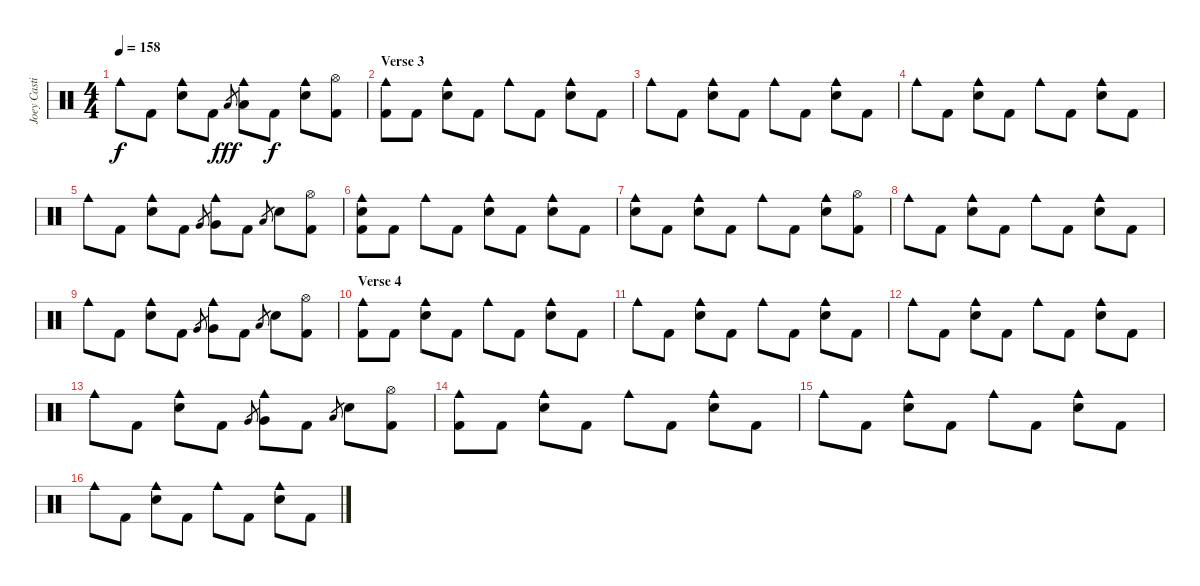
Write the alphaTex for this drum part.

\track ("Joey Castillo" "Joey Casti") {instrument percussion}
\staff {score}
\articulation defaults
\ts (4 4)
\tempo 158
\clef neutral
\ks c "Cowbell medium (hit)".8{dy f} "Kick (hit) 2".8
("Cowbell medium (hit)" "Electric Snare (hit)").8 "Kick (hit) 2".8 "Low Tom (hit)".8{gr dy fff} ("Cowbell medium (hit)" "Low Tom (hit)").8 "Kick (hit) 2".8{dy f} ("Cowbell medium (hit)" "Electric Snare (hit)").8 ("Hi-Hat (open)" "Kick (hit) 2").8 |
\section ("" "Verse 3")
("Cowbell medium (hit)" "Kick (hit) 2").8 "Kick (hit) 2".8 ("Cowbell medium (hit)" "Electric Snare (hit)").8 "Kick (hit) 2".8 "Cowbell medium (hit)".8 "Kick (hit) 2".8 ("Cowbell medium (hit)" "Electric Snare (hit)").8 "Kick (hit) 2".8 |
"Cowbell medium (hit)".8 "Kick (hit) 2".8 ("Cowbell medium (hit)" "Electric Snare (hit)").8 "Kick (hit) 2".8 "Cowbell medium (hit)".8 "Kick (hit) 2".8 ("Cowbell medium (hit)" "Electric Snare (hit)").8 "Kick (hit) 2".8 |
"Cowbell medium (hit)".8 "Kick (hit) 2".8 ("Cowbell medium (hit)" "Electric Snare (hit)").8 "Kick (hit) 2".8 "Cowbell medium (hit)".8 "Kick (hit) 2".8 ("Cowbell medium (hit)" "Electric Snare (hit)").8 "Kick (hit) 2".8 |
"Cowbell medium (hit)".8 "Kick (hit) 2".8 ("Cowbell medium (hit)" "Electric Snare (hit)").8 "Kick (hit) 2".8 "Very Low Tom (hit)".8{gr} ("Cowbell medium (hit)" "Very Low Tom (hit)").8 "Kick (hit) 2".8 "Low Floor Tom (hit)".8{gr} "Electric Snare (hit)".8 ("Hi-Hat (open)" "Kick (hit) 2").8 |
("Cowbell medium (hit)" "Electric Snare (hit)" "Kick (hit) 2").8 "Kick (hit) 2".8 "Cowbell medium (hit)".8 "Kick (hit) 2".8 ("Cowbell medium (hit)" "Electric Snare (hit)").8 "Kick (hit) 2".8 ("Cowbell medium (hit)" "Electric Snare (hit)").8 "Kick (hit) 2".8 |
("Cowbell medium (hit)" "Electric Snare (hit)").8 "Kick (hit) 2".8 ("Cowbell medium (hit)" "Electric Snare (hit)").8 "Kick (hit) 2".8 "Cowbell medium (hit)".8 "Kick (hit) 2".8 ("Cowbell medium (hit)" "Electric Snare (hit)").8 ("Hi-Hat (open)" "Kick (hit) 2").8 |
"Cowbell medium (hit)".8 "Kick (hit) 2".8 ("Cowbell medium (hit)" "Electric Snare (hit)").8 "Kick (hit) 2".8 "Cowbell medium (hit)".8 "Kick (hit) 2".8 ("Cowbell medium (hit)" "Electric Snare (hit)").8 "Kick (hit) 2".8 |
"Cowbell medium (hit)".8 "Kick (hit) 2".8 ("Cowbell medium (hit)" "Electric Snare (hit)").8 "Kick (hit) 2".8 "Very Low Tom (hit)".8{gr} ("Cowbell medium (hit)" "Very Low Tom (hit)").8 "Kick (hit) 2".8 "Low Floor Tom (hit)".8{gr} "Electric Snare (hit)".8 ("Hi-Hat (open)" "Kick (hit) 2").8 |
\section ("" "Verse 4")
("Cowbell medium (hit)" "Kick (hit) 2").8 "Kick (hit) 2".8 ("Cowbell medium (hit)" "Electric Snare (hit)").8 "Kick (hit) 2".8 "Cowbell medium (hit)".8 "Kick (hit) 2".8 ("Cowbell medium (hit)" "Electric Snare (hit)").8 "Kick (hit) 2".8 |
"Cowbell medium (hit)".8 "Kick (hit) 2".8 ("Cowbell medium (hit)" "Electric Snare (hit)").8 "Kick (hit) 2".8 "Cowbell medium (hit)".8 "Kick (hit) 2".8 ("Cowbell medium (hit)" "Electric Snare (hit)").8 "Kick (hit) 2".8 |
"Cowbell medium (hit)".8 "Kick (hit) 2".8 ("Cowbell medium (hit)" "Electric Snare (hit)").8 "Kick (hit) 2".8 "Cowbell medium (hit)".8 "Kick (hit) 2".8 ("Cowbell medium (hit)" "Electric Snare (hit)").8 "Kick (hit) 2".8 |
"Cowbell medium (hit)".8 "Kick (hit) 2".8 ("Cowbell medium (hit)" "Electric Snare (hit)").8 "Kick (hit) 2".8 "Very Low Tom (hit)".8{gr} ("Cowbell medium (hit)" "Very Low Tom (hit)").8 "Kick (hit) 2".8 "Low Floor Tom (hit)".8{gr} "Electric Snare (hit)".8 ("Hi-Hat (open)" "Kick (hit) 2").8 |
("Cowbell medium (hit)" "Kick (hit) 2").8 "Kick (hit) 2".8 ("Cowbell medium (hit)" "Electric Snare (hit)").8 "Kick (hit) 2".8 "Cowbell medium (hit)".8 "Kick (hit) 2".8 ("Cowbell medium (hit)" "Electric Snare (hit)").8 "Kick (hit) 2".8 |
"Cowbell medium (hit)".8 "Kick (hit) 2".8 ("Cowbell medium (hit)" "Electric Snare (hit)").8 "Kick (hit) 2".8 "Cowbell medium (hit)".8 "Kick (hit) 2".8 ("Cowbell medium (hit)" "Electric Snare (hit)").8 "Kick (hit) 2".8 |
"Cowbell medium (hit)".8 "Kick (hit) 2".8 ("Cowbell medium (hit)" "Electric Snare (hit)").8 "Kick (hit) 2".8 "Cowbell medium (hit)".8 "Kick (hit) 2".8 ("Cowbell medium (hit)" "Electric Snare (hit)").8 "Kick (hit) 2".8
